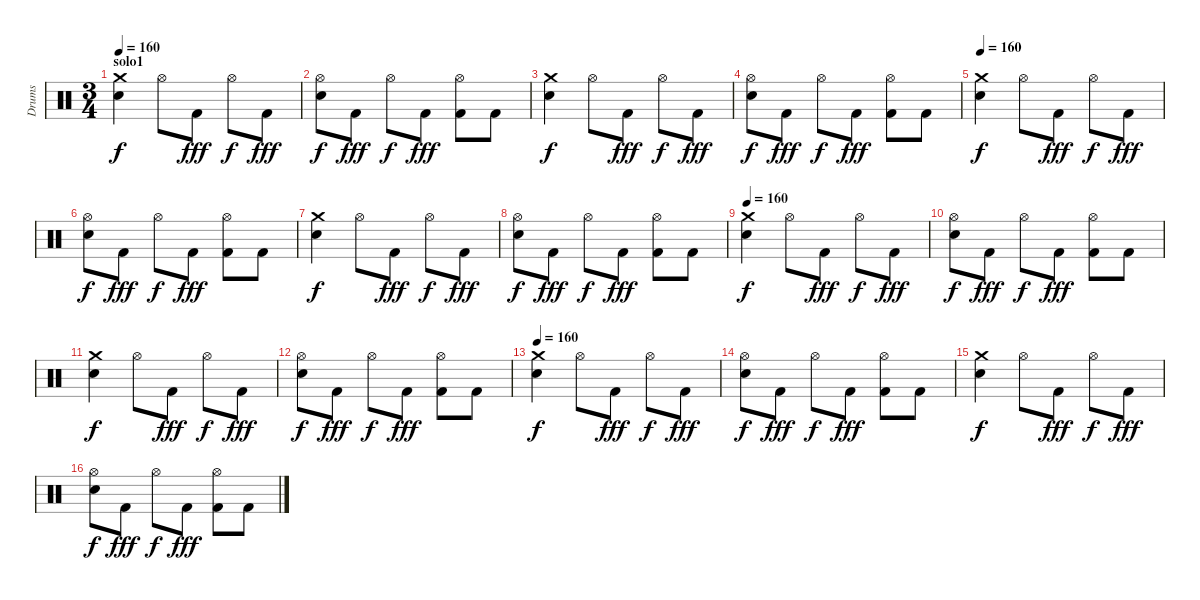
\track ("Drums" "Drums") {instrument percussion}
\staff {score}
\articulation defaults
\ts (3 4)
\section ("" "solo1")
\tempo 160
\clef neutral
\ks c
("Crash medium (hit)" "Electric Snare (hit)").4{dy f} "Hi-Hat (open)".8 "Kick (hit) 2".8{dy fff} "Hi-Hat (open)".8{dy f} "Kick (hit) 2".8{dy fff} |
("Hi-Hat (open)" "Electric Snare (hit)").8{dy f} "Kick (hit) 2".8{dy fff} "Hi-Hat (open)".8{dy f} "Kick (hit) 2".8{dy fff} ("Hi-Hat (open)" "Kick (hit) 2").8 "Kick (hit) 2".8 |
("Crash medium (hit)" "Electric Snare (hit)").4{dy f} "Hi-Hat (open)".8 "Kick (hit) 2".8{dy fff} "Hi-Hat (open)".8{dy f} "Kick (hit) 2".8{dy fff} |
("Hi-Hat (open)" "Electric Snare (hit)").8{dy f} "Kick (hit) 2".8{dy fff} "Hi-Hat (open)".8{dy f} "Kick (hit) 2".8{dy fff} ("Hi-Hat (open)" "Kick (hit) 2").8 "Kick (hit) 2".8 |
\tempo 160
("Crash medium (hit)" "Electric Snare (hit)").4{dy f} "Hi-Hat (open)".8 "Kick (hit) 2".8{dy fff} "Hi-Hat (open)".8{dy f} "Kick (hit) 2".8{dy fff} |
("Hi-Hat (open)" "Electric Snare (hit)").8{dy f} "Kick (hit) 2".8{dy fff} "Hi-Hat (open)".8{dy f} "Kick (hit) 2".8{dy fff} ("Hi-Hat (open)" "Kick (hit) 2").8 "Kick (hit) 2".8 |
("Crash medium (hit)" "Electric Snare (hit)").4{dy f} "Hi-Hat (open)".8 "Kick (hit) 2".8{dy fff} "Hi-Hat (open)".8{dy f} "Kick (hit) 2".8{dy fff} |
("Hi-Hat (open)" "Electric Snare (hit)").8{dy f} "Kick (hit) 2".8{dy fff} "Hi-Hat (open)".8{dy f} "Kick (hit) 2".8{dy fff} ("Hi-Hat (open)" "Kick (hit) 2").8 "Kick (hit) 2".8 |
\tempo 160
("Crash medium (hit)" "Electric Snare (hit)").4{dy f} "Hi-Hat (open)".8 "Kick (hit) 2".8{dy fff} "Hi-Hat (open)".8{dy f} "Kick (hit) 2".8{dy fff} |
("Hi-Hat (open)" "Electric Snare (hit)").8{dy f} "Kick (hit) 2".8{dy fff} "Hi-Hat (open)".8{dy f} "Kick (hit) 2".8{dy fff} ("Hi-Hat (open)" "Kick (hit) 2").8 "Kick (hit) 2".8 |
("Crash medium (hit)" "Electric Snare (hit)").4{dy f} "Hi-Hat (open)".8 "Kick (hit) 2".8{dy fff} "Hi-Hat (open)".8{dy f} "Kick (hit) 2".8{dy fff} |
("Hi-Hat (open)" "Electric Snare (hit)").8{dy f} "Kick (hit) 2".8{dy fff} "Hi-Hat (open)".8{dy f} "Kick (hit) 2".8{dy fff} ("Hi-Hat (open)" "Kick (hit) 2").8 "Kick (hit) 2".8 |
\tempo 160
("Crash medium (hit)" "Electric Snare (hit)").4{dy f} "Hi-Hat (open)".8 "Kick (hit) 2".8{dy fff} "Hi-Hat (open)".8{dy f} "Kick (hit) 2".8{dy fff} |
("Hi-Hat (open)" "Electric Snare (hit)").8{dy f} "Kick (hit) 2".8{dy fff} "Hi-Hat (open)".8{dy f} "Kick (hit) 2".8{dy fff} ("Hi-Hat (open)" "Kick (hit) 2").8 "Kick (hit) 2".8 |
("Crash medium (hit)" "Electric Snare (hit)").4{dy f} "Hi-Hat (open)".8 "Kick (hit) 2".8{dy fff} "Hi-Hat (open)".8{dy f} "Kick (hit) 2".8{dy fff} |
("Hi-Hat (open)" "Electric Snare (hit)").8{dy f} "Kick (hit) 2".8{dy fff} "Hi-Hat (open)".8{dy f} "Kick (hit) 2".8{dy fff} ("Hi-Hat (open)" "Kick (hit) 2").8 "Kick (hit) 2".8
